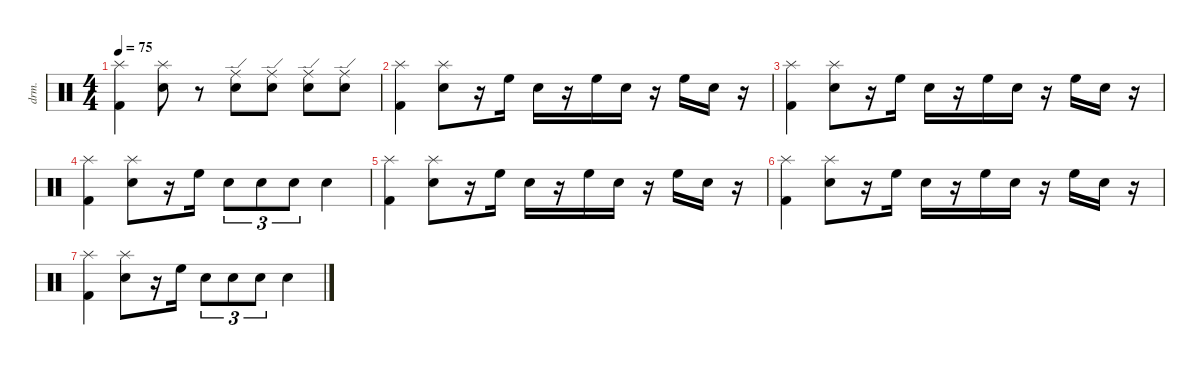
\defaultSystemsLayout 4
\hideDynamics
\bracketExtendMode nobrackets
\otherSystemsTrackNameOrientation horizontal
\track ("Drumkit" "drm.") {instrument percussion}
\staff {score}
\articulation defaults
\ts (4 4)
\tempo 75
\clef neutral
\ks c
("Kick (hit) 2" "Splash (hit)").4{dy mf beam Down} ("Snare (hit) 2" "Splash (hit)").8{beam Down} r.8{beam Down} ("Snare (hit) 2" "Ride (edge)").8{beam Down} ("Snare (hit) 2" "Ride (edge)").8{beam Down} ("Snare (hit) 2" "Ride (edge)").8{beam Down} ("Snare (hit) 2" "Ride (edge)").8{beam Down} |
("Kick (hit) 2" "Splash (hit)").4{beam Down} ("Snare (hit) 2" "Splash (hit)").8{beam Down} r.16{beam Down} "High Floor Tom (hit)".16{beam Down} "Snare (hit) 2".16{beam Down} r.16{beam Down} "High Floor Tom (hit)".16{beam Down} "Snare (hit) 2".16{beam Down} r.16{beam Down} "High Floor Tom (hit)".16{beam Down} "Snare (hit) 2".16{beam Down} r.16{beam Down} |
("Kick (hit) 2" "Splash (hit)").4{beam Down} ("Snare (hit) 2" "Splash (hit)").8{beam Down} r.16{beam Down} "High Floor Tom (hit)".16{beam Down} "Snare (hit) 2".16{beam Down} r.16{beam Down} "High Floor Tom (hit)".16{beam Down} "Snare (hit) 2".16{beam Down} r.16{beam Down} "High Floor Tom (hit)".16{beam Down} "Snare (hit) 2".16{beam Down} r.16{beam Down} |
("Kick (hit) 2" "Splash (hit)").4{beam Down} ("Snare (hit) 2" "Splash (hit)").8{beam Down} r.16{beam Down} "High Floor Tom (hit)".16{beam Down} "Snare (hit) 2".8{tu (3 2) beam Down} "Snare (hit) 2".8{tu (3 2) beam Down} "Snare (hit) 2".8{tu (3 2) beam Down} "Snare (hit) 2".4{beam Down} |
("Kick (hit) 2" "Splash (hit)").4{beam Down} ("Snare (hit) 2" "Splash (hit)").8{beam Down} r.16{beam Down} "High Floor Tom (hit)".16{beam Down} "Snare (hit) 2".16{beam Down} r.16{beam Down} "High Floor Tom (hit)".16{beam Down} "Snare (hit) 2".16{beam Down} r.16{beam Down} "High Floor Tom (hit)".16{beam Down} "Snare (hit) 2".16{beam Down} r.16{beam Down} |
("Kick (hit) 2" "Splash (hit)").4{beam Down} ("Snare (hit) 2" "Splash (hit)").8{beam Down} r.16{beam Down} "High Floor Tom (hit)".16{beam Down} "Snare (hit) 2".16{beam Down} r.16{beam Down} "High Floor Tom (hit)".16{beam Down} "Snare (hit) 2".16{beam Down} r.16{beam Down} "High Floor Tom (hit)".16{beam Down} "Snare (hit) 2".16{beam Down} r.16{beam Down} |
("Kick (hit) 2" "Splash (hit)").4{beam Down} ("Snare (hit) 2" "Splash (hit)").8{beam Down} r.16{beam Down} "High Floor Tom (hit)".16{beam Down} "Snare (hit) 2".8{tu (3 2) beam Down} "Snare (hit) 2".8{tu (3 2) beam Down} "Snare (hit) 2".8{tu (3 2) beam Down} "Snare (hit) 2".4{beam Down}
